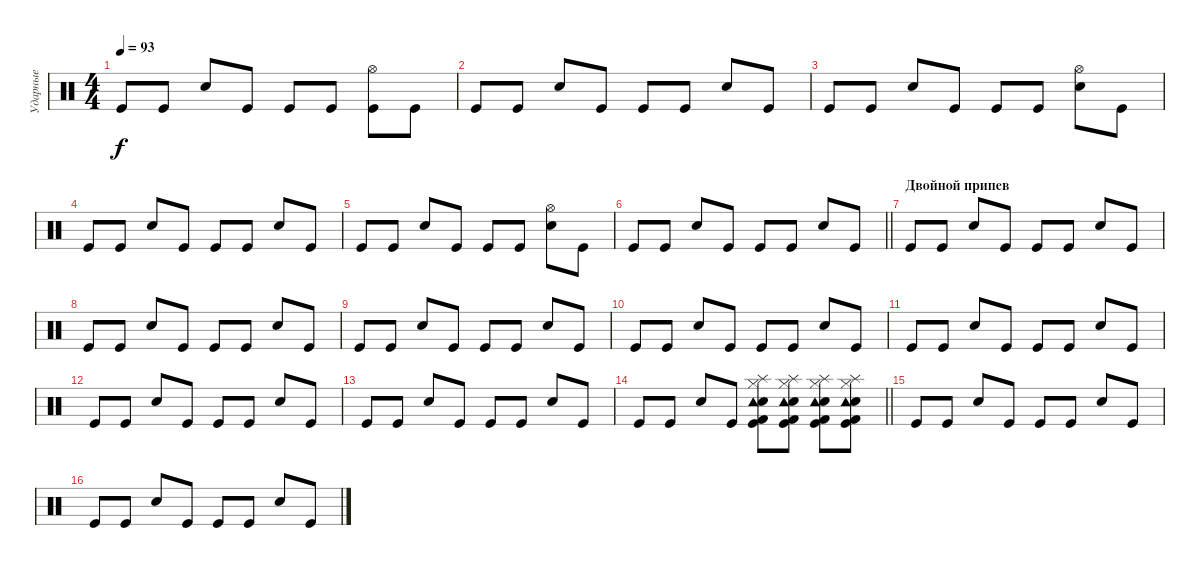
\track ("Ударные" "Ударные") {instrument percussion}
\staff {score}
\articulation defaults
\ts (4 4)
\tempo 93
\clef neutral
\ks c "Kick (hit)".8{dy f} "Kick (hit)".8 "Snare (hit) 2".8 "Kick (hit)".8 "Kick (hit)".8 "Kick (hit)".8
("Kick (hit)" "Hi-Hat (open)").8 "Kick (hit)".8 |
"Kick (hit)".8 "Kick (hit)".8 "Snare (hit) 2".8 "Kick (hit)".8 "Kick (hit)".8 "Kick (hit)".8 "Snare (hit) 2".8 "Kick (hit)".8 |
"Kick (hit)".8 "Kick (hit)".8 "Snare (hit) 2".8 "Kick (hit)".8 "Kick (hit)".8 "Kick (hit)".8 ("Snare (hit) 2" "Hi-Hat (open)").8 "Kick (hit)".8 |
"Kick (hit)".8 "Kick (hit)".8 "Snare (hit) 2".8 "Kick (hit)".8 "Kick (hit)".8 "Kick (hit)".8 "Snare (hit) 2".8 "Kick (hit)".8 |
"Kick (hit)".8 "Kick (hit)".8 "Snare (hit) 2".8 "Kick (hit)".8 "Kick (hit)".8 "Kick (hit)".8 ("Snare (hit) 2" "Hi-Hat (open)").8 "Kick (hit)".8 |
\barLineRight lightlight "Kick (hit)".8 "Kick (hit)".8 "Snare (hit) 2".8 "Kick (hit)".8 "Kick (hit)".8 "Kick (hit)".8 "Snare (hit) 2".8 "Kick (hit)".8
|
\section ("" "Двойной припев")
"Kick (hit)".8 "Kick (hit)".8 "Snare (hit) 2".8 "Kick (hit)".8 "Kick (hit)".8 "Kick (hit)".8 "Snare (hit) 2".8 "Kick (hit)".8 |
"Kick (hit)".8 "Kick (hit)".8 "Snare (hit) 2".8 "Kick (hit)".8 "Kick (hit)".8 "Kick (hit)".8 "Snare (hit) 2".8 "Kick (hit)".8 |
"Kick (hit)".8 "Kick (hit)".8 "Snare (hit) 2".8 "Kick (hit)".8 "Kick (hit)".8 "Kick (hit)".8 "Snare (hit) 2".8 "Kick (hit)".8 |
"Kick (hit)".8 "Kick (hit)".8 "Snare (hit) 2".8 "Kick (hit)".8 "Kick (hit)".8 "Kick (hit)".8 "Snare (hit) 2".8 "Kick (hit)".8 |
"Kick (hit)".8 "Kick (hit)".8 "Snare (hit) 2".8 "Kick (hit)".8 "Kick (hit)".8 "Kick (hit)".8 "Snare (hit) 2".8 "Kick (hit)".8 |
"Kick (hit)".8 "Kick (hit)".8 "Snare (hit) 2".8 "Kick (hit)".8 "Kick (hit)".8 "Kick (hit)".8 "Snare (hit) 2".8 "Kick (hit)".8 |
"Kick (hit)".8 "Kick (hit)".8 "Snare (hit) 2".8 "Kick (hit)".8 "Kick (hit)".8 "Kick (hit)".8 "Snare (hit) 2".8 "Kick (hit)".8 |
\barLineRight lightlight "Kick (hit)".8 "Kick (hit)".8 "Snare (hit) 2".8 "Kick (hit)".8
("Kick (hit)" "Snare (hit) 2" "Kick (hit) 2" "Splash (hit)" "Tambourine (hit)" "Hi-Hat (closed)").8 ("Kick (hit)" "Snare (hit) 2" "Kick (hit) 2" "Splash (hit)" "Tambourine (hit)" "Hi-Hat (closed)").8 ("Kick (hit)" "Snare (hit) 2" "Kick (hit) 2" "Splash (hit)" "Tambourine (hit)" "Hi-Hat (closed)").8 ("Kick (hit)" "Snare (hit) 2" "Kick (hit) 2" "Splash (hit)" "Tambourine (hit)" "Hi-Hat (closed)").8 |
"Kick (hit)".8 "Kick (hit)".8 "Snare (hit) 2".8 "Kick (hit)".8 "Kick (hit)".8 "Kick (hit)".8 "Snare (hit) 2".8 "Kick (hit)".8 |
"Kick (hit)".8 "Kick (hit)".8 "Snare (hit) 2".8 "Kick (hit)".8 "Kick (hit)".8 "Kick (hit)".8 "Snare (hit) 2".8 "Kick (hit)".8
